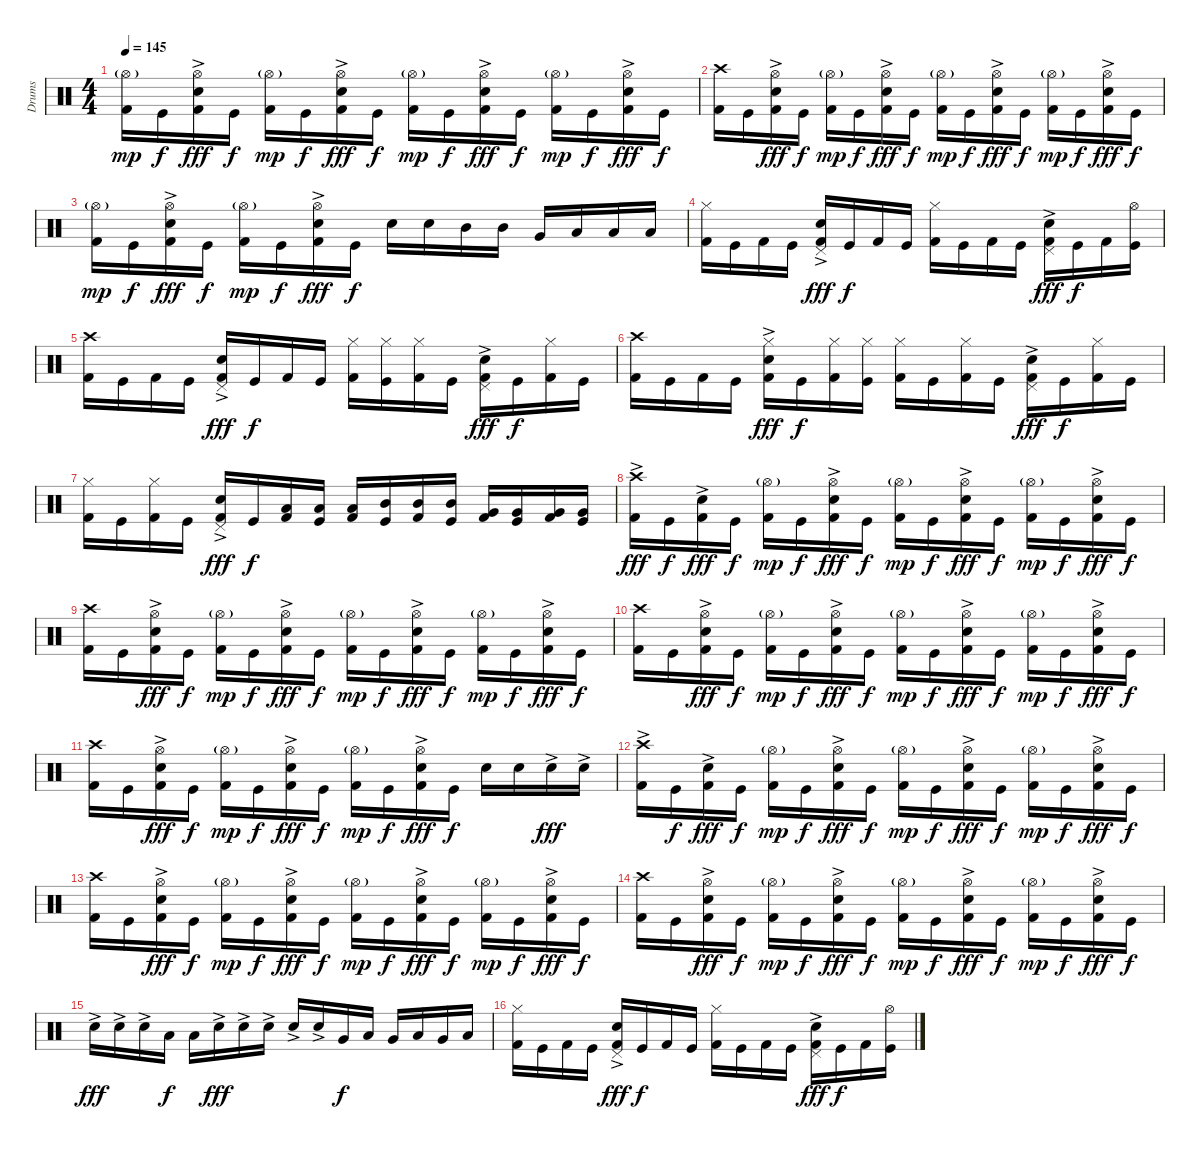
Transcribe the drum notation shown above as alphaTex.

\track ("Drums" "Drums") {instrument percussion}
\staff {score}
\articulation defaults
\ts (4 4)
\tempo 145
\clef neutral
\ks c
("Hi-Hat (open)"{g} "Kick (hit) 2").16{dy mp} "Kick (hit)".16{dy f} ("Hi-Hat (open)" "Electric Snare (hit)"{ac} "Kick (hit) 2").16{dy fff} "Kick (hit)".16{dy f} ("Hi-Hat (open)"{g} "Kick (hit) 2").16{dy mp} "Kick (hit)".16{dy f} ("Hi-Hat (open)" "Electric Snare (hit)"{ac} "Kick (hit) 2").16{dy fff} "Kick (hit)".16{dy f} ("Hi-Hat (open)"{g} "Kick (hit) 2").16{dy mp} "Kick (hit)".16{dy f} ("Hi-Hat (open)" "Electric Snare (hit)"{ac} "Kick (hit) 2").16{dy fff} "Kick (hit)".16{dy f} ("Hi-Hat (open)"{g} "Kick (hit) 2").16{dy mp} "Kick (hit)".16{dy f} ("Hi-Hat (open)" "Electric Snare (hit)"{ac} "Kick (hit) 2").16{dy fff} "Kick (hit)".16{dy f} |
("Crash high (hit)" "Kick (hit) 2").16 "Kick (hit)".16 ("Hi-Hat (open)" "Electric Snare (hit)"{ac} "Kick (hit) 2").16{dy fff} "Kick (hit)".16{dy f} ("Hi-Hat (open)"{g} "Kick (hit) 2").16{dy mp} "Kick (hit)".16{dy f} ("Hi-Hat (open)" "Electric Snare (hit)"{ac} "Kick (hit) 2").16{dy fff} "Kick (hit)".16{dy f} ("Hi-Hat (open)"{g} "Kick (hit) 2").16{dy mp} "Kick (hit)".16{dy f} ("Hi-Hat (open)" "Electric Snare (hit)"{ac} "Kick (hit) 2").16{dy fff} "Kick (hit)".16{dy f} ("Hi-Hat (open)"{g} "Kick (hit) 2").16{dy mp} "Kick (hit)".16{dy f} ("Hi-Hat (open)" "Electric Snare (hit)"{ac} "Kick (hit) 2").16{dy fff} "Kick (hit)".16{dy f} |
("Hi-Hat (open)"{g} "Kick (hit) 2").16{dy mp} "Kick (hit)".16{dy f} ("Hi-Hat (open)" "Electric Snare (hit)"{ac} "Kick (hit) 2").16{dy fff} "Kick (hit)".16{dy f} ("Hi-Hat (open)"{g} "Kick (hit) 2").16{dy mp} "Kick (hit)".16{dy f} ("Hi-Hat (open)" "Electric Snare (hit)"{ac} "Kick (hit) 2").16{dy fff} "Kick (hit)".16{dy f} "Electric Snare (hit)".16 "Electric Snare (hit)".16 "Mid Tom (hit)".16 "Mid Tom (hit)".16 "Very Low Tom (hit)".16 "Low Floor Tom (hit)".16 "Low Floor Tom (hit)".16 "Low Tom (hit)".16 |
("Hi-Hat (closed)" "Kick (hit) 2").16 "Kick (hit)".16 "Kick (hit) 2".16 "Kick (hit)".16 ("Pedal Hi-Hat (hit)" "Electric Snare (hit)"{ac} "Kick (hit) 2").16{dy fff} "Kick (hit)".16{dy f} "Kick (hit) 2".16 "Kick (hit)".16 ("Hi-Hat (closed)" "Kick (hit) 2").16 "Kick (hit)".16 "Kick (hit) 2".16 "Kick (hit)".16 ("Pedal Hi-Hat (hit)" "Electric Snare (hit)"{ac} "Kick (hit) 2").16{dy fff} "Kick (hit)".16{dy f} "Kick (hit) 2".16 ("Hi-Hat (open)" "Kick (hit)").16 |
("Crash high (hit)" "Kick (hit) 2").16 "Kick (hit)".16 "Kick (hit) 2".16 "Kick (hit)".16 ("Pedal Hi-Hat (hit)" "Electric Snare (hit)"{ac} "Kick (hit) 2").16{dy fff} "Kick (hit)".16{dy f} "Kick (hit) 2".16 "Kick (hit)".16 ("Hi-Hat (closed)" "Kick (hit) 2").16 ("Hi-Hat (closed)" "Kick (hit)").16 ("Hi-Hat (closed)" "Kick (hit) 2").16 "Kick (hit)".16 ("Pedal Hi-Hat (hit)" "Electric Snare (hit)"{ac} "Kick (hit) 2").16{dy fff} "Kick (hit)".16{dy f} ("Hi-Hat (closed)" "Kick (hit) 2").16 "Kick (hit)".16 |
("Crash high (hit)" "Kick (hit) 2").16 "Kick (hit)".16 "Kick (hit) 2".16 "Kick (hit)".16 ("Hi-Hat (closed)" "Electric Snare (hit)"{ac} "Kick (hit) 2").16{dy fff} "Kick (hit)".16{dy f} ("Hi-Hat (closed)" "Kick (hit) 2").16 ("Hi-Hat (closed)" "Kick (hit)").16 ("Hi-Hat (closed)" "Kick (hit) 2").16 "Kick (hit)".16 ("Hi-Hat (closed)" "Kick (hit) 2").16 "Kick (hit)".16 ("Pedal Hi-Hat (hit)" "Electric Snare (hit)"{ac} "Kick (hit) 2").16{dy fff} "Kick (hit)".16{dy f} ("Hi-Hat (closed)" "Kick (hit) 2").16 "Kick (hit)".16 |
("Hi-Hat (closed)" "Kick (hit) 2").16 "Kick (hit)".16 ("Hi-Hat (closed)" "Kick (hit) 2").16 "Kick (hit)".16 ("Pedal Hi-Hat (hit)" "Electric Snare (hit)"{ac} "Kick (hit) 2").16{dy fff} "Kick (hit)".16{dy f} ("Low Tom (hit)" "Kick (hit) 2").16 ("Low Tom (hit)" "Kick (hit)").16 ("Low Tom (hit)" "Kick (hit) 2").16 ("Mid Tom (hit)" "Kick (hit)").16 ("Mid Tom (hit)" "Kick (hit) 2").16 ("Mid Tom (hit)" "Kick (hit)").16 ("Very Low Tom (hit)" "Kick (hit) 2").16 ("Very Low Tom (hit)" "Kick (hit)").16 ("Very Low Tom (hit)" "Kick (hit) 2").16 ("Very Low Tom (hit)" "Kick (hit)").16 |
("Crash high (hit)"{ac} "Kick (hit) 2").16{dy fff} "Kick (hit)".16{dy f} ("Electric Snare (hit)"{ac} "Kick (hit) 2").16{dy fff} "Kick (hit)".16{dy f} ("Hi-Hat (open)"{g} "Kick (hit) 2").16{dy mp} "Kick (hit)".16{dy f} ("Hi-Hat (open)" "Electric Snare (hit)"{ac} "Kick (hit) 2").16{dy fff} "Kick (hit)".16{dy f} ("Hi-Hat (open)"{g} "Kick (hit) 2").16{dy mp} "Kick (hit)".16{dy f} ("Hi-Hat (open)" "Electric Snare (hit)"{ac} "Kick (hit) 2").16{dy fff} "Kick (hit)".16{dy f} ("Hi-Hat (open)"{g} "Kick (hit) 2").16{dy mp} "Kick (hit)".16{dy f} ("Hi-Hat (open)" "Electric Snare (hit)"{ac} "Kick (hit) 2").16{dy fff} "Kick (hit)".16{dy f} |
("Crash high (hit)" "Kick (hit) 2").16 "Kick (hit)".16 ("Hi-Hat (open)" "Electric Snare (hit)"{ac} "Kick (hit) 2").16{dy fff} "Kick (hit)".16{dy f} ("Hi-Hat (open)"{g} "Kick (hit) 2").16{dy mp} "Kick (hit)".16{dy f} ("Hi-Hat (open)" "Electric Snare (hit)"{ac} "Kick (hit) 2").16{dy fff} "Kick (hit)".16{dy f} ("Hi-Hat (open)"{g} "Kick (hit) 2").16{dy mp} "Kick (hit)".16{dy f} ("Hi-Hat (open)" "Electric Snare (hit)"{ac} "Kick (hit) 2").16{dy fff} "Kick (hit)".16{dy f} ("Hi-Hat (open)"{g} "Kick (hit) 2").16{dy mp} "Kick (hit)".16{dy f} ("Hi-Hat (open)" "Electric Snare (hit)"{ac} "Kick (hit) 2").16{dy fff} "Kick (hit)".16{dy f} |
("Crash high (hit)" "Kick (hit) 2").16 "Kick (hit)".16 ("Hi-Hat (open)" "Electric Snare (hit)"{ac} "Kick (hit) 2").16{dy fff} "Kick (hit)".16{dy f} ("Hi-Hat (open)"{g} "Kick (hit) 2").16{dy mp} "Kick (hit)".16{dy f} ("Hi-Hat (open)" "Electric Snare (hit)"{ac} "Kick (hit) 2").16{dy fff} "Kick (hit)".16{dy f} ("Hi-Hat (open)"{g} "Kick (hit) 2").16{dy mp} "Kick (hit)".16{dy f} ("Hi-Hat (open)" "Electric Snare (hit)"{ac} "Kick (hit) 2").16{dy fff} "Kick (hit)".16{dy f} ("Hi-Hat (open)"{g} "Kick (hit) 2").16{dy mp} "Kick (hit)".16{dy f} ("Hi-Hat (open)" "Electric Snare (hit)"{ac} "Kick (hit) 2").16{dy fff} "Kick (hit)".16{dy f} |
("Crash high (hit)" "Kick (hit) 2").16 "Kick (hit)".16 ("Hi-Hat (open)" "Electric Snare (hit)"{ac} "Kick (hit) 2").16{dy fff} "Kick (hit)".16{dy f} ("Hi-Hat (open)"{g} "Kick (hit) 2").16{dy mp} "Kick (hit)".16{dy f} ("Hi-Hat (open)" "Electric Snare (hit)"{ac} "Kick (hit) 2").16{dy fff} "Kick (hit)".16{dy f} ("Hi-Hat (open)"{g} "Kick (hit) 2").16{dy mp} "Kick (hit)".16{dy f} ("Hi-Hat (open)" "Electric Snare (hit)"{ac} "Kick (hit) 2").16{dy fff} "Kick (hit)".16{dy f} "Electric Snare (hit)".16 "Electric Snare (hit)".16 "Electric Snare (hit)"{ac}.16{dy fff} "Electric Snare (hit)"{ac}.16 |
("Crash high (hit)"{ac} "Kick (hit) 2").16 "Kick (hit)".16{dy f} ("Electric Snare (hit)"{ac} "Kick (hit) 2").16{dy fff} "Kick (hit)".16{dy f} ("Hi-Hat (open)"{g} "Kick (hit) 2").16{dy mp} "Kick (hit)".16{dy f} ("Hi-Hat (open)" "Electric Snare (hit)"{ac} "Kick (hit) 2").16{dy fff} "Kick (hit)".16{dy f} ("Hi-Hat (open)"{g} "Kick (hit) 2").16{dy mp} "Kick (hit)".16{dy f} ("Hi-Hat (open)" "Electric Snare (hit)"{ac} "Kick (hit) 2").16{dy fff} "Kick (hit)".16{dy f} ("Hi-Hat (open)"{g} "Kick (hit) 2").16{dy mp} "Kick (hit)".16{dy f} ("Hi-Hat (open)" "Electric Snare (hit)"{ac} "Kick (hit) 2").16{dy fff} "Kick (hit)".16{dy f} |
("Crash high (hit)" "Kick (hit) 2").16 "Kick (hit)".16 ("Hi-Hat (open)" "Electric Snare (hit)"{ac} "Kick (hit) 2").16{dy fff} "Kick (hit)".16{dy f} ("Hi-Hat (open)"{g} "Kick (hit) 2").16{dy mp} "Kick (hit)".16{dy f} ("Hi-Hat (open)" "Electric Snare (hit)"{ac} "Kick (hit) 2").16{dy fff} "Kick (hit)".16{dy f} ("Hi-Hat (open)"{g} "Kick (hit) 2").16{dy mp} "Kick (hit)".16{dy f} ("Hi-Hat (open)" "Electric Snare (hit)"{ac} "Kick (hit) 2").16{dy fff} "Kick (hit)".16{dy f} ("Hi-Hat (open)"{g} "Kick (hit) 2").16{dy mp} "Kick (hit)".16{dy f} ("Hi-Hat (open)" "Electric Snare (hit)"{ac} "Kick (hit) 2").16{dy fff} "Kick (hit)".16{dy f} |
("Crash high (hit)" "Kick (hit) 2").16 "Kick (hit)".16 ("Hi-Hat (open)" "Electric Snare (hit)"{ac} "Kick (hit) 2").16{dy fff} "Kick (hit)".16{dy f} ("Hi-Hat (open)"{g} "Kick (hit) 2").16{dy mp} "Kick (hit)".16{dy f} ("Hi-Hat (open)" "Electric Snare (hit)"{ac} "Kick (hit) 2").16{dy fff} "Kick (hit)".16{dy f} ("Hi-Hat (open)"{g} "Kick (hit) 2").16{dy mp} "Kick (hit)".16{dy f} ("Hi-Hat (open)" "Electric Snare (hit)"{ac} "Kick (hit) 2").16{dy fff} "Kick (hit)".16{dy f} ("Hi-Hat (open)"{g} "Kick (hit) 2").16{dy mp} "Kick (hit)".16{dy f} ("Hi-Hat (open)" "Electric Snare (hit)"{ac} "Kick (hit) 2").16{dy fff} "Kick (hit)".16{dy f} |
"Electric Snare (hit)"{ac}.16{dy fff} "Electric Snare (hit)"{ac}.16 "Electric Snare (hit)"{ac}.16 "Low Tom (hit)".16{dy f} "Low Tom (hit)".16 "Electric Snare (hit)"{ac}.16{dy fff} "Electric Snare (hit)"{ac}.16 "Electric Snare (hit)"{ac}.16 "Electric Snare (hit)"{ac}.16 "Electric Snare (hit)"{ac}.16 "Very Low Tom (hit)".16{dy f} "Low Floor Tom (hit)".16 "Very Low Tom (hit)".16 "Low Floor Tom (hit)".16 "Very Low Tom (hit)".16 "Low Floor Tom (hit)".16 |
("Hi-Hat (closed)" "Kick (hit) 2").16 "Kick (hit)".16 "Kick (hit) 2".16 "Kick (hit)".16 ("Pedal Hi-Hat (hit)" "Electric Snare (hit)"{ac} "Kick (hit) 2").16{dy fff} "Kick (hit)".16{dy f} "Kick (hit) 2".16 "Kick (hit)".16 ("Hi-Hat (closed)" "Kick (hit) 2").16 "Kick (hit)".16 "Kick (hit) 2".16 "Kick (hit)".16 ("Pedal Hi-Hat (hit)" "Electric Snare (hit)"{ac} "Kick (hit) 2").16{dy fff} "Kick (hit)".16{dy f} "Kick (hit) 2".16 ("Hi-Hat (open)" "Kick (hit)").16
